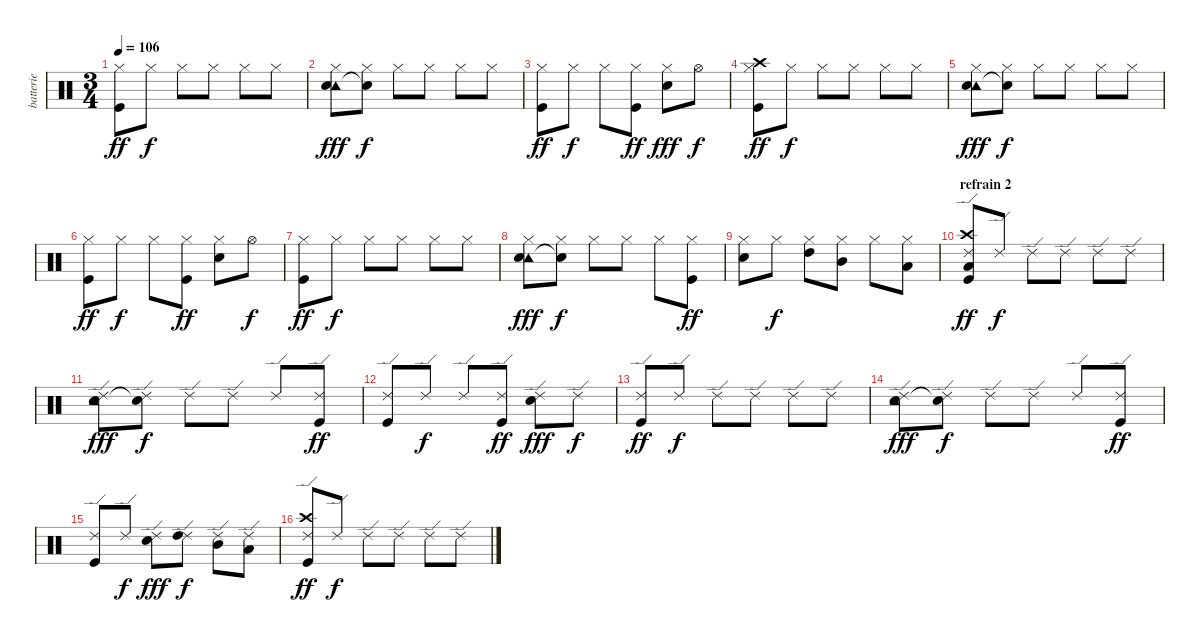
\track ("batterie" "batterie") {instrument percussion}
\staff {score}
\articulation defaults
\ts (3 4)
\tempo 106
\clef neutral
\ks c
("Hi-Hat (closed)" "Kick (hit)").8{dy ff} "Hi-Hat (closed)".8{dy f} "Hi-Hat (closed)".8 "Hi-Hat (closed)".8 "Hi-Hat (closed)".8 "Hi-Hat (closed)".8 |
("Tambourine (hit)" "Hi-Hat (closed)" "Electric Snare (hit)").8{dy fff} ("Snare (hit)"{t} "Hi-Hat (closed)").8{dy f} "Hi-Hat (closed)".8 "Hi-Hat (closed)".8 "Hi-Hat (closed)".8 "Hi-Hat (closed)".8 |
("Hi-Hat (closed)" "Kick (hit)").8{dy ff} "Hi-Hat (closed)".8{dy f} "Hi-Hat (closed)".8 ("Hi-Hat (closed)" "Kick (hit)").8{dy ff} ("Hi-Hat (closed)" "Electric Snare (hit)").8{dy fff} "Hi-Hat (open)".8{dy f} |
("Crash high (hit)" "Hi-Hat (closed)" "Kick (hit)").8{dy ff} "Hi-Hat (closed)".8{dy f} "Hi-Hat (closed)".8 "Hi-Hat (closed)".8 "Hi-Hat (closed)".8 "Hi-Hat (closed)".8 |
("Tambourine (hit)" "Hi-Hat (closed)" "Electric Snare (hit)").8{dy fff} ("Snare (hit)"{t} "Hi-Hat (closed)").8{dy f} "Hi-Hat (closed)".8 "Hi-Hat (closed)".8 "Hi-Hat (closed)".8 "Hi-Hat (closed)".8 |
("Hi-Hat (closed)" "Kick (hit)").8{dy ff} "Hi-Hat (closed)".8{dy f} "Hi-Hat (closed)".8 ("Hi-Hat (closed)" "Kick (hit)").8{dy ff} ("Hi-Hat (closed)" "Electric Snare (hit)").8 "Hi-Hat (open)".8{dy f} |
("Hi-Hat (closed)" "Kick (hit)").8{dy ff} "Hi-Hat (closed)".8{dy f} "Hi-Hat (closed)".8 "Hi-Hat (closed)".8 "Hi-Hat (closed)".8 "Hi-Hat (closed)".8 |
("Tambourine (hit)" "Hi-Hat (closed)" "Electric Snare (hit)").8{dy fff} ("Snare (hit)"{t} "Hi-Hat (closed)").8{dy f} "Hi-Hat (closed)".8 "Hi-Hat (closed)".8 "Hi-Hat (closed)".8 ("Hi-Hat (closed)" "Kick (hit)").8{dy ff} |
("Hi-Hat (closed)" "Electric Snare (hit)").8 "Hi-Hat (closed)".8{dy f} ("High Tom (hit)" "Hi-Hat (closed)").8 ("Mid Tom (hit)" "Hi-Hat (closed)").8 "Hi-Hat (closed)".8 ("Low Floor Tom (hit)" "Hi-Hat (closed)").8 |
\section ("" "refrain 2")
("Low Floor Tom (hit)" "Crash high (hit)" "Ride (edge) 2" "Kick (hit)").8{dy ff} "Ride (edge) 2".8{dy f} "Ride (edge) 2".8 "Ride (edge) 2".8 "Ride (edge) 2".8 "Ride (edge) 2".8 |
("Tambourine (hit)" "Ride (edge) 2" "Electric Snare (hit)").8{dy fff} ("Snare (hit)"{t} "Ride (edge) 2").8{dy f} "Ride (edge) 2".8 "Ride (edge) 2".8 "Ride (edge) 2".8 ("Ride (edge) 2" "Kick (hit)").8{dy ff} |
("Ride (edge) 2" "Kick (hit)").8 "Ride (edge) 2".8{dy f} "Ride (edge) 2".8 ("Ride (edge) 2" "Kick (hit)").8{dy ff} ("Ride (edge) 2" "Electric Snare (hit)").8{dy fff} "Ride (edge) 2".8{dy f} |
("Ride (edge) 2" "Kick (hit)").8{dy ff} "Ride (edge) 2".8{dy f} "Ride (edge) 2".8 "Ride (edge) 2".8 "Ride (edge) 2".8 "Ride (edge) 2".8 |
("Tambourine (hit)" "Ride (edge) 2" "Electric Snare (hit)").8{dy fff} ("Snare (hit)"{t} "Ride (edge) 2").8{dy f} "Ride (edge) 2".8 "Ride (edge) 2".8 "Ride (edge) 2".8 ("Ride (edge) 2" "Kick (hit)").8{dy ff} |
("Ride (edge) 2" "Kick (hit)").8 "Ride (edge) 2".8{dy f} ("Ride (edge) 2" "Electric Snare (hit)").8{dy fff} ("Ride (edge) 2" "High Tom (hit)").8{dy f} ("Ride (edge) 2" "Mid Tom (hit)").8 ("Ride (edge) 2" "Low Floor Tom (hit)").8 |
("Crash high (hit)" "Ride (edge) 2" "Kick (hit)").8{dy ff} "Ride (edge) 2".8{dy f} "Ride (edge) 2".8 "Ride (edge) 2".8 "Ride (edge) 2".8 "Ride (edge) 2".8
